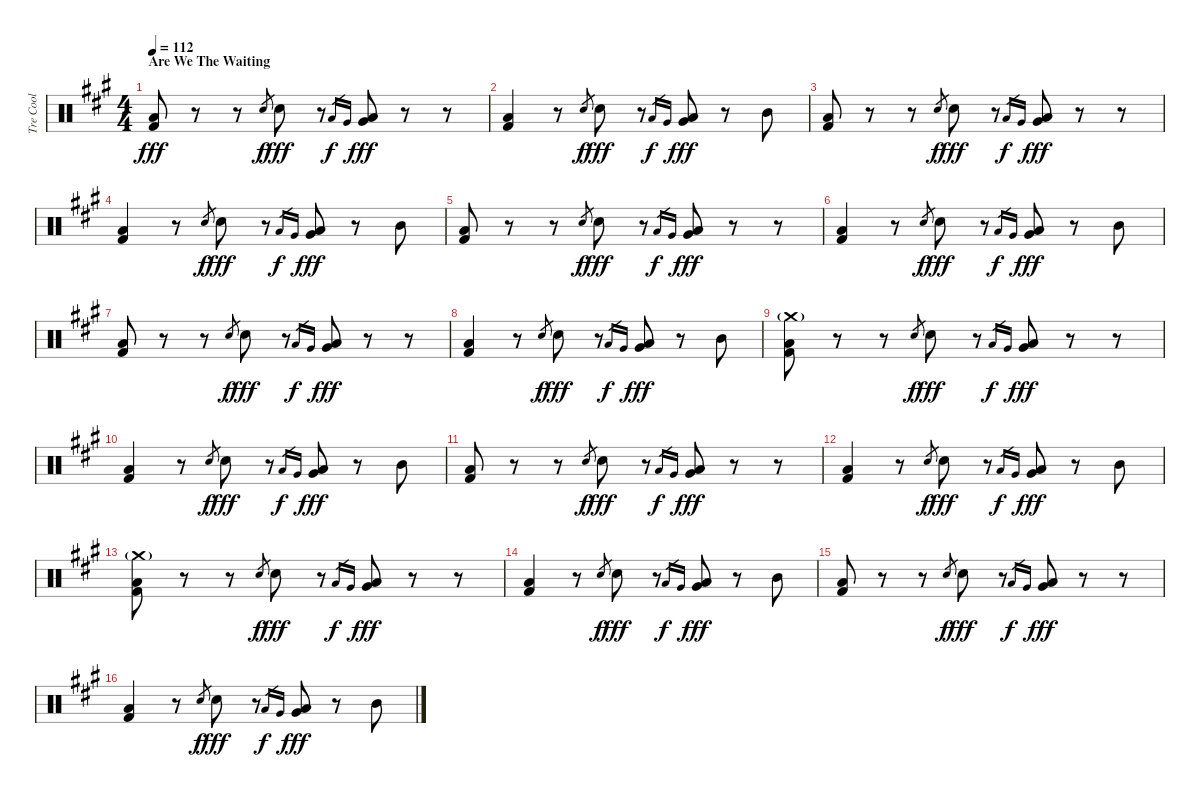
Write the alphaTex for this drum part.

\track ("Tre Cool" "Tre Cool") {instrument percussion}
\staff {score}
\articulation defaults
\ts (4 4)
\section ("" "Are We The Waiting")
\tempo 112
\clef neutral
\ks a
("Low Floor Tom (hit)" "Kick (hit) 2").8{dy fff volume 14} r.8 r.8 "Electric Snare (hit)".8{gr dy f} "Electric Snare (hit)".8{dy fff} r.8 "Low Floor Tom (hit)".16{gr dy f} "Very Low Tom (hit)".16{gr} ("Low Floor Tom (hit)" "Very Low Tom (hit)").8{dy fff} r.8 r.8 |
("Low Floor Tom (hit)" "Kick (hit) 2").4 r.8 "Electric Snare (hit)".8{gr dy f} "Electric Snare (hit)".8{dy fff} r.8 "Low Floor Tom (hit)".16{gr dy f} "Very Low Tom (hit)".16{gr} ("Low Floor Tom (hit)" "Very Low Tom (hit)").8{dy fff} r.8 "Mid Tom (hit)".8 |
("Low Floor Tom (hit)" "Kick (hit) 2").8 r.8 r.8 "Electric Snare (hit)".8{gr dy f} "Electric Snare (hit)".8{dy fff} r.8 "Low Floor Tom (hit)".16{gr dy f} "Very Low Tom (hit)".16{gr} ("Low Floor Tom (hit)" "Very Low Tom (hit)").8{dy fff} r.8 r.8 |
("Low Floor Tom (hit)" "Kick (hit) 2").4 r.8 "Electric Snare (hit)".8{gr dy f} "Electric Snare (hit)".8{dy fff} r.8 "Low Floor Tom (hit)".16{gr dy f} "Very Low Tom (hit)".16{gr} ("Low Floor Tom (hit)" "Very Low Tom (hit)").8{dy fff} r.8 "Mid Tom (hit)".8 |
("Low Floor Tom (hit)" "Kick (hit) 2").8 r.8 r.8 "Electric Snare (hit)".8{gr dy f} "Electric Snare (hit)".8{dy fff} r.8 "Low Floor Tom (hit)".16{gr dy f} "Very Low Tom (hit)".16{gr} ("Low Floor Tom (hit)" "Very Low Tom (hit)").8{dy fff} r.8 r.8 |
("Low Floor Tom (hit)" "Kick (hit) 2").4 r.8 "Electric Snare (hit)".8{gr dy f} "Electric Snare (hit)".8{dy fff} r.8 "Low Floor Tom (hit)".16{gr dy f} "Very Low Tom (hit)".16{gr} ("Low Floor Tom (hit)" "Very Low Tom (hit)").8{dy fff} r.8 "Mid Tom (hit)".8 |
("Low Floor Tom (hit)" "Kick (hit) 2").8 r.8 r.8 "Electric Snare (hit)".8{gr dy f} "Electric Snare (hit)".8{dy fff} r.8 "Low Floor Tom (hit)".16{gr dy f} "Very Low Tom (hit)".16{gr} ("Low Floor Tom (hit)" "Very Low Tom (hit)").8{dy fff} r.8 r.8 |
("Low Floor Tom (hit)" "Kick (hit) 2").4 r.8 "Electric Snare (hit)".8{gr dy f} "Electric Snare (hit)".8{dy fff} r.8 "Low Floor Tom (hit)".16{gr dy f} "Very Low Tom (hit)".16{gr} ("Low Floor Tom (hit)" "Very Low Tom (hit)").8{dy fff} r.8 "Mid Tom (hit)".8 |
("Crash medium (hit)"{g} "Low Floor Tom (hit)" "Kick (hit) 2").8 r.8 r.8 "Electric Snare (hit)".8{gr dy f} "Electric Snare (hit)".8{dy fff} r.8 "Low Floor Tom (hit)".16{gr dy f} "Very Low Tom (hit)".16{gr} ("Low Floor Tom (hit)" "Very Low Tom (hit)").8{dy fff} r.8 r.8 |
("Low Floor Tom (hit)" "Kick (hit) 2").4 r.8 "Electric Snare (hit)".8{gr dy f} "Electric Snare (hit)".8{dy fff} r.8 "Low Floor Tom (hit)".16{gr dy f} "Very Low Tom (hit)".16{gr} ("Low Floor Tom (hit)" "Very Low Tom (hit)").8{dy fff} r.8 "Mid Tom (hit)".8 |
("Low Floor Tom (hit)" "Kick (hit) 2").8 r.8 r.8 "Electric Snare (hit)".8{gr dy f} "Electric Snare (hit)".8{dy fff} r.8 "Low Floor Tom (hit)".16{gr dy f} "Very Low Tom (hit)".16{gr} ("Low Floor Tom (hit)" "Very Low Tom (hit)").8{dy fff} r.8 r.8 |
("Low Floor Tom (hit)" "Kick (hit) 2").4 r.8 "Electric Snare (hit)".8{gr dy f} "Electric Snare (hit)".8{dy fff} r.8 "Low Floor Tom (hit)".16{gr dy f} "Very Low Tom (hit)".16{gr} ("Low Floor Tom (hit)" "Very Low Tom (hit)").8{dy fff} r.8 "Mid Tom (hit)".8 |
("Crash medium (hit)"{g} "Low Floor Tom (hit)" "Kick (hit) 2").8 r.8 r.8 "Electric Snare (hit)".8{gr dy f} "Electric Snare (hit)".8{dy fff} r.8 "Low Floor Tom (hit)".16{gr dy f} "Very Low Tom (hit)".16{gr} ("Low Floor Tom (hit)" "Very Low Tom (hit)").8{dy fff} r.8 r.8 |
("Low Floor Tom (hit)" "Kick (hit) 2").4 r.8 "Electric Snare (hit)".8{gr dy f} "Electric Snare (hit)".8{dy fff} r.8 "Low Floor Tom (hit)".16{gr dy f} "Very Low Tom (hit)".16{gr} ("Low Floor Tom (hit)" "Very Low Tom (hit)").8{dy fff} r.8 "Mid Tom (hit)".8 |
("Low Floor Tom (hit)" "Kick (hit) 2").8 r.8 r.8 "Electric Snare (hit)".8{gr dy f} "Electric Snare (hit)".8{dy fff} r.8 "Low Floor Tom (hit)".16{gr dy f} "Very Low Tom (hit)".16{gr} ("Low Floor Tom (hit)" "Very Low Tom (hit)").8{dy fff} r.8 r.8 |
("Low Floor Tom (hit)" "Kick (hit) 2").4 r.8 "Electric Snare (hit)".8{gr dy f} "Electric Snare (hit)".8{dy fff} r.8 "Low Floor Tom (hit)".16{gr dy f} "Very Low Tom (hit)".16{gr} ("Low Floor Tom (hit)" "Very Low Tom (hit)").8{dy fff} r.8 "Mid Tom (hit)".8
